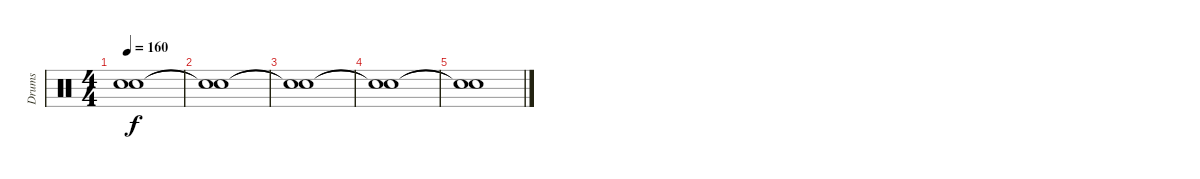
\track ("Drums" "Drums") {instrument percussion}
\staff {score}
\articulation defaults
\ts (4 4)
\tempo 160
\clef neutral
\ks c
("Snare (hit)"{t} "Snare (hit)"{t}).1{dy f} |
("Snare (hit)"{t} "Snare (hit)"{t}).1 |
("Snare (hit)"{t} "Snare (hit)"{t}).1 |
("Snare (hit)"{t} "Snare (hit)"{t}).1 |
("Snare (hit)"{t} "Snare (hit)"{t}).1
